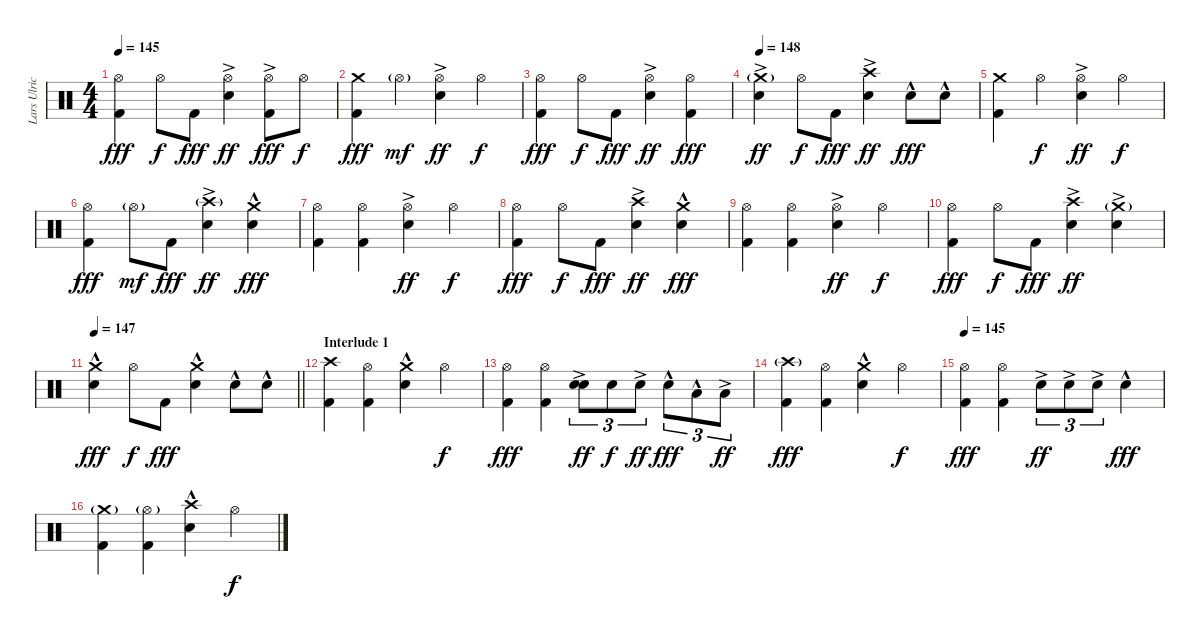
\track ("Lars Ulrich (Drums)" "Lars Ulric") {instrument percussion}
\staff {score}
\articulation defaults
\ts (4 4)
\tempo 145
\clef neutral
\ks c
("Hi-Hat (open)" "Kick (hit) 2").4{dy fff} "Hi-Hat (open)".8{dy f} "Kick (hit) 2".8{dy fff} ("Hi-Hat (open)"{ac} "Electric Snare (hit)"{ac}).4{dy ff} ("Hi-Hat (open)"{ac} "Kick (hit) 2").8{dy fff} "Hi-Hat (open)".8{dy f} |
("Crash medium (hit)" "Kick (hit) 2").4{dy fff} "Hi-Hat (open)"{g}.4{dy mf} ("Hi-Hat (open)"{ac} "Electric Snare (hit)"{ac}).4{dy ff} "Hi-Hat (open)".4{dy f} |
("Hi-Hat (open)" "Kick (hit) 2").4{dy fff} "Hi-Hat (open)".8{dy f} "Kick (hit) 2".8{dy fff} ("Hi-Hat (open)"{ac} "Electric Snare (hit)"{ac}).4{dy ff} ("Hi-Hat (open)" "Kick (hit) 2").4{dy fff} |
\tempo 148
("Crash medium (hit)"{g} "Electric Snare (hit)"{ac}).4{dy ff} "Hi-Hat (open)".8{dy f} "Kick (hit) 2".8{dy fff} ("Crash high (hit)" "Electric Snare (hit)"{ac}).4{dy ff} "Electric Snare (hit)"{hac}.8{dy fff} "Electric Snare (hit)"{hac}.8 |
("Crash medium (hit)" "Kick (hit) 2").4 "Hi-Hat (open)".4{dy f} ("Hi-Hat (open)"{ac} "Electric Snare (hit)"{ac}).4{dy ff} "Hi-Hat (open)".4{dy f} |
("Hi-Hat (open)" "Kick (hit) 2").4{dy fff} "Hi-Hat (open)"{g}.8{dy mf} "Kick (hit) 2".8{dy fff} ("Crash high (hit)"{g} "Electric Snare (hit)"{ac}).4{dy ff} ("Crash medium (hit)" "Electric Snare (hit)"{hac}).4{dy fff} |
("Hi-Hat (open)" "Kick (hit) 2").4 ("Hi-Hat (open)" "Kick (hit) 2").4 ("Hi-Hat (open)"{ac} "Electric Snare (hit)"{ac}).4{dy ff} "Hi-Hat (open)".4{dy f} |
("Hi-Hat (open)" "Kick (hit) 2").4{dy fff} "Hi-Hat (open)".8{dy f} "Kick (hit) 2".8{dy fff} ("Crash high (hit)" "Electric Snare (hit)"{ac}).4{dy ff} ("Crash medium (hit)" "Electric Snare (hit)"{hac}).4{dy fff} |
("Hi-Hat (open)" "Kick (hit) 2").4 ("Hi-Hat (open)" "Kick (hit) 2").4 ("Hi-Hat (open)"{ac} "Electric Snare (hit)"{ac}).4{dy ff} "Hi-Hat (open)".4{dy f} |
("Hi-Hat (open)" "Kick (hit) 2").4{dy fff} "Hi-Hat (open)".8{dy f} "Kick (hit) 2".8{dy fff} ("Crash high (hit)" "Electric Snare (hit)"{ac}).4{dy ff} ("Crash medium (hit)"{g} "Electric Snare (hit)"{ac}).4 |
\tempo 147
\barLineRight lightlight
("Crash medium (hit)" "Electric Snare (hit)"{hac}).4{dy fff} "Hi-Hat (open)".8{dy f} "Kick (hit) 2".8{dy fff} ("Crash medium (hit)" "Electric Snare (hit)"{hac}).4 "Electric Snare (hit)"{hac}.8 "Electric Snare (hit)"{hac}.8 |
\section ("" "Interlude 1")
("Crash high (hit)" "Kick (hit) 2").4 ("Hi-Hat (open)" "Kick (hit) 2").4 ("Crash medium (hit)" "Electric Snare (hit)"{hac}).4 "Hi-Hat (open)".4{dy f} |
("Hi-Hat (open)" "Kick (hit) 2").4{dy fff} ("Hi-Hat (open)" "Kick (hit) 2").4 ("Electric Snare (hit)"{ac} "Electric Snare (hit)"{ac}).8{tu (3 2) bd 60 dy ff} "Electric Snare (hit)".8{tu (3 2) dy f} "Electric Snare (hit)"{ac}.8{tu (3 2) dy ff} "Electric Snare (hit)"{hac}.8{tu (3 2) dy fff} "Low Tom (hit)"{hac}.8{tu (3 2)} "Low Tom (hit)"{ac}.8{tu (3 2) dy ff} |
("Crash high (hit)"{g} "Kick (hit) 2").4{dy fff} ("Hi-Hat (open)" "Kick (hit) 2").4 ("Crash medium (hit)" "Electric Snare (hit)"{hac}).4 "Hi-Hat (open)".4{dy f} |
\tempo 145
("Hi-Hat (open)" "Kick (hit) 2").4{dy fff} ("Hi-Hat (open)" "Kick (hit) 2").4 "Electric Snare (hit)"{ac}.8{tu (3 2) dy ff} "Electric Snare (hit)"{ac}.8{tu (3 2)} "Electric Snare (hit)"{ac}.8{tu (3 2)} "Electric Snare (hit)"{hac}.4{dy fff} |
("Crash medium (hit)"{g} "Kick (hit) 2").4 ("Hi-Hat (open)"{g} "Kick (hit) 2").4 ("Crash high (hit)" "Electric Snare (hit)"{hac}).4 "Hi-Hat (open)".4{dy f}
